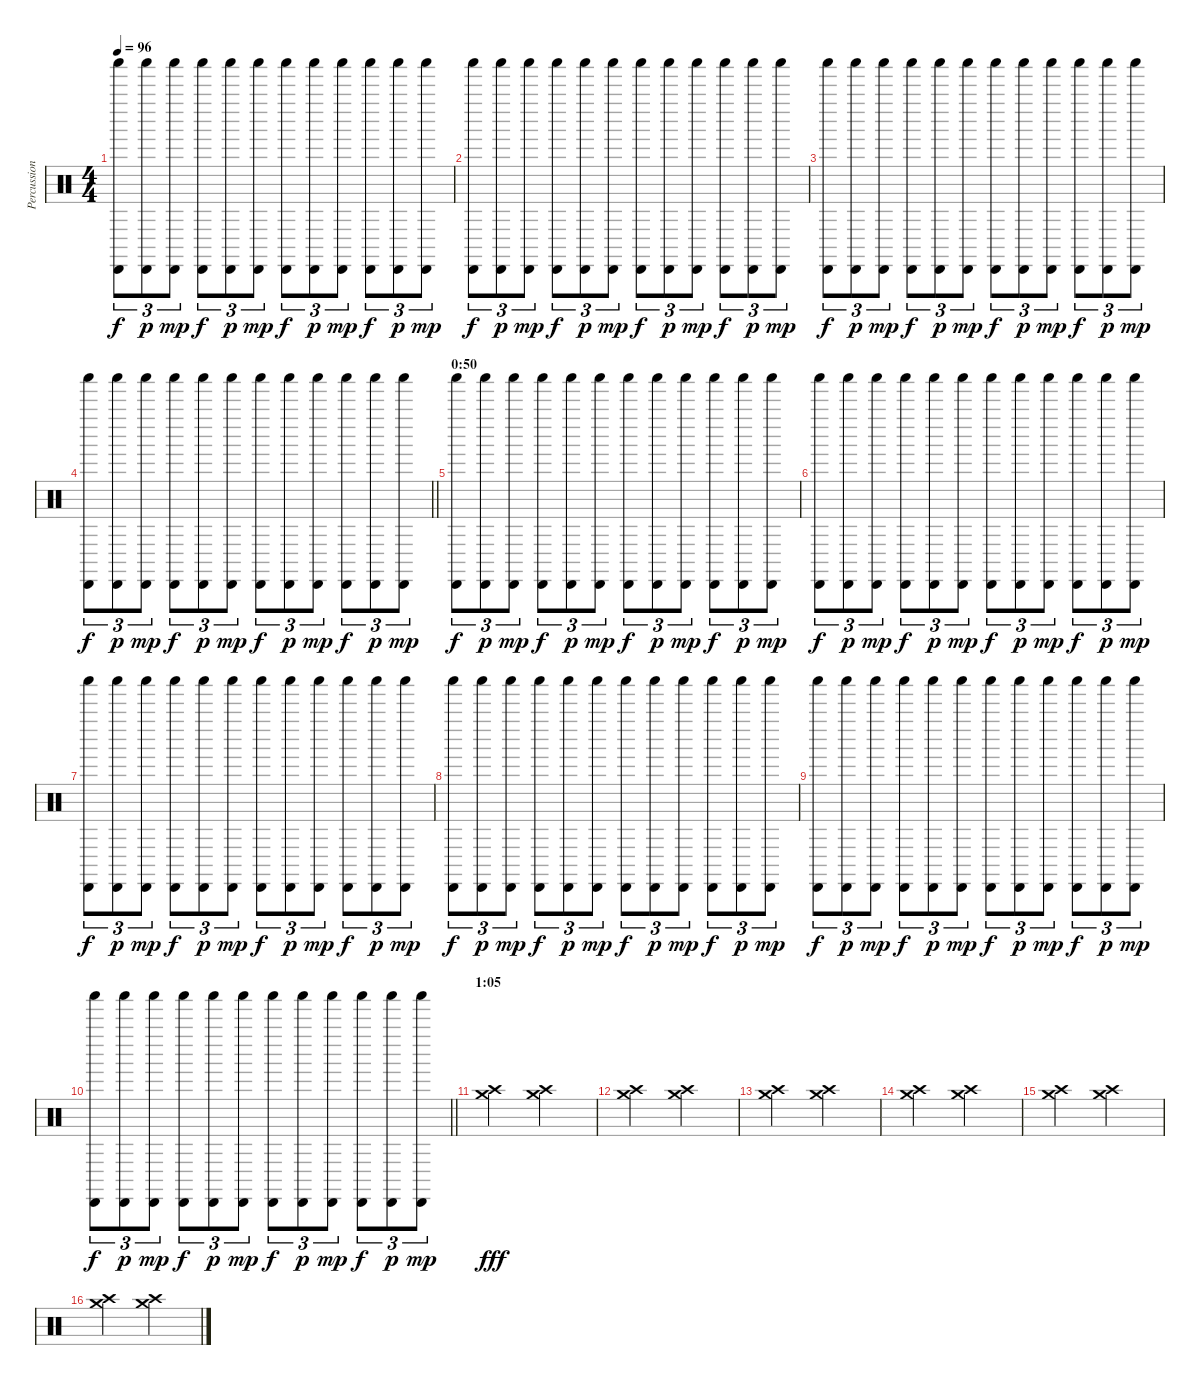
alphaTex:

\track ("Percussion" "Percussion") {instrument percussion}
\staff {score}
\articulation defaults
\ts (4 4)
\tempo 96
\clef neutral
\ks c
("Shaker (hit)" "Cabasa (hit)").8{tu (3 2) dy f} ("Shaker (hit)" "Cabasa (hit)").8{tu (3 2) dy p} ("Shaker (hit)" "Cabasa (hit)").8{tu (3 2) dy mp} ("Shaker (hit)" "Cabasa (hit)").8{tu (3 2) dy f} ("Shaker (hit)" "Cabasa (hit)").8{tu (3 2) dy p} ("Shaker (hit)" "Cabasa (hit)").8{tu (3 2) dy mp} ("Shaker (hit)" "Cabasa (hit)").8{tu (3 2) dy f} ("Shaker (hit)" "Cabasa (hit)").8{tu (3 2) dy p} ("Shaker (hit)" "Cabasa (hit)").8{tu (3 2) dy mp} ("Shaker (hit)" "Cabasa (hit)").8{tu (3 2) dy f} ("Shaker (hit)" "Cabasa (hit)").8{tu (3 2) dy p} ("Shaker (hit)" "Cabasa (hit)").8{tu (3 2) dy mp} |
("Shaker (hit)" "Cabasa (hit)").8{tu (3 2) dy f} ("Shaker (hit)" "Cabasa (hit)").8{tu (3 2) dy p} ("Shaker (hit)" "Cabasa (hit)").8{tu (3 2) dy mp} ("Shaker (hit)" "Cabasa (hit)").8{tu (3 2) dy f} ("Shaker (hit)" "Cabasa (hit)").8{tu (3 2) dy p} ("Shaker (hit)" "Cabasa (hit)").8{tu (3 2) dy mp} ("Shaker (hit)" "Cabasa (hit)").8{tu (3 2) dy f} ("Shaker (hit)" "Cabasa (hit)").8{tu (3 2) dy p} ("Shaker (hit)" "Cabasa (hit)").8{tu (3 2) dy mp} ("Shaker (hit)" "Cabasa (hit)").8{tu (3 2) dy f} ("Shaker (hit)" "Cabasa (hit)").8{tu (3 2) dy p} ("Shaker (hit)" "Cabasa (hit)").8{tu (3 2) dy mp} |
("Shaker (hit)" "Cabasa (hit)").8{tu (3 2) dy f} ("Shaker (hit)" "Cabasa (hit)").8{tu (3 2) dy p} ("Shaker (hit)" "Cabasa (hit)").8{tu (3 2) dy mp} ("Shaker (hit)" "Cabasa (hit)").8{tu (3 2) dy f} ("Shaker (hit)" "Cabasa (hit)").8{tu (3 2) dy p} ("Shaker (hit)" "Cabasa (hit)").8{tu (3 2) dy mp} ("Shaker (hit)" "Cabasa (hit)").8{tu (3 2) dy f} ("Shaker (hit)" "Cabasa (hit)").8{tu (3 2) dy p} ("Shaker (hit)" "Cabasa (hit)").8{tu (3 2) dy mp} ("Shaker (hit)" "Cabasa (hit)").8{tu (3 2) dy f} ("Shaker (hit)" "Cabasa (hit)").8{tu (3 2) dy p} ("Shaker (hit)" "Cabasa (hit)").8{tu (3 2) dy mp} |
\barLineRight lightlight
("Shaker (hit)" "Cabasa (hit)").8{tu (3 2) dy f} ("Shaker (hit)" "Cabasa (hit)").8{tu (3 2) dy p} ("Shaker (hit)" "Cabasa (hit)").8{tu (3 2) dy mp} ("Shaker (hit)" "Cabasa (hit)").8{tu (3 2) dy f} ("Shaker (hit)" "Cabasa (hit)").8{tu (3 2) dy p} ("Shaker (hit)" "Cabasa (hit)").8{tu (3 2) dy mp} ("Shaker (hit)" "Cabasa (hit)").8{tu (3 2) dy f} ("Shaker (hit)" "Cabasa (hit)").8{tu (3 2) dy p} ("Shaker (hit)" "Cabasa (hit)").8{tu (3 2) dy mp} ("Shaker (hit)" "Cabasa (hit)").8{tu (3 2) dy f} ("Shaker (hit)" "Cabasa (hit)").8{tu (3 2) dy p} ("Shaker (hit)" "Cabasa (hit)").8{tu (3 2) dy mp} |
\section ("" "0:50")
("Shaker (hit)" "Cabasa (hit)").8{tu (3 2) dy f} ("Shaker (hit)" "Cabasa (hit)").8{tu (3 2) dy p} ("Shaker (hit)" "Cabasa (hit)").8{tu (3 2) dy mp} ("Shaker (hit)" "Cabasa (hit)").8{tu (3 2) dy f} ("Shaker (hit)" "Cabasa (hit)").8{tu (3 2) dy p} ("Shaker (hit)" "Cabasa (hit)").8{tu (3 2) dy mp} ("Shaker (hit)" "Cabasa (hit)").8{tu (3 2) dy f} ("Shaker (hit)" "Cabasa (hit)").8{tu (3 2) dy p} ("Shaker (hit)" "Cabasa (hit)").8{tu (3 2) dy mp} ("Shaker (hit)" "Cabasa (hit)").8{tu (3 2) dy f} ("Shaker (hit)" "Cabasa (hit)").8{tu (3 2) dy p} ("Shaker (hit)" "Cabasa (hit)").8{tu (3 2) dy mp} |
("Shaker (hit)" "Cabasa (hit)").8{tu (3 2) dy f} ("Shaker (hit)" "Cabasa (hit)").8{tu (3 2) dy p} ("Shaker (hit)" "Cabasa (hit)").8{tu (3 2) dy mp} ("Shaker (hit)" "Cabasa (hit)").8{tu (3 2) dy f} ("Shaker (hit)" "Cabasa (hit)").8{tu (3 2) dy p} ("Shaker (hit)" "Cabasa (hit)").8{tu (3 2) dy mp} ("Shaker (hit)" "Cabasa (hit)").8{tu (3 2) dy f} ("Shaker (hit)" "Cabasa (hit)").8{tu (3 2) dy p} ("Shaker (hit)" "Cabasa (hit)").8{tu (3 2) dy mp} ("Shaker (hit)" "Cabasa (hit)").8{tu (3 2) dy f} ("Shaker (hit)" "Cabasa (hit)").8{tu (3 2) dy p} ("Shaker (hit)" "Cabasa (hit)").8{tu (3 2) dy mp} |
("Shaker (hit)" "Cabasa (hit)").8{tu (3 2) dy f} ("Shaker (hit)" "Cabasa (hit)").8{tu (3 2) dy p} ("Shaker (hit)" "Cabasa (hit)").8{tu (3 2) dy mp} ("Shaker (hit)" "Cabasa (hit)").8{tu (3 2) dy f} ("Shaker (hit)" "Cabasa (hit)").8{tu (3 2) dy p} ("Shaker (hit)" "Cabasa (hit)").8{tu (3 2) dy mp} ("Shaker (hit)" "Cabasa (hit)").8{tu (3 2) dy f} ("Shaker (hit)" "Cabasa (hit)").8{tu (3 2) dy p} ("Shaker (hit)" "Cabasa (hit)").8{tu (3 2) dy mp} ("Shaker (hit)" "Cabasa (hit)").8{tu (3 2) dy f} ("Shaker (hit)" "Cabasa (hit)").8{tu (3 2) dy p} ("Shaker (hit)" "Cabasa (hit)").8{tu (3 2) dy mp} |
("Shaker (hit)" "Cabasa (hit)").8{tu (3 2) dy f} ("Shaker (hit)" "Cabasa (hit)").8{tu (3 2) dy p} ("Shaker (hit)" "Cabasa (hit)").8{tu (3 2) dy mp} ("Shaker (hit)" "Cabasa (hit)").8{tu (3 2) dy f} ("Shaker (hit)" "Cabasa (hit)").8{tu (3 2) dy p} ("Shaker (hit)" "Cabasa (hit)").8{tu (3 2) dy mp} ("Shaker (hit)" "Cabasa (hit)").8{tu (3 2) dy f} ("Shaker (hit)" "Cabasa (hit)").8{tu (3 2) dy p} ("Shaker (hit)" "Cabasa (hit)").8{tu (3 2) dy mp} ("Shaker (hit)" "Cabasa (hit)").8{tu (3 2) dy f} ("Shaker (hit)" "Cabasa (hit)").8{tu (3 2) dy p} ("Shaker (hit)" "Cabasa (hit)").8{tu (3 2) dy mp} |
("Shaker (hit)" "Cabasa (hit)").8{tu (3 2) dy f} ("Shaker (hit)" "Cabasa (hit)").8{tu (3 2) dy p} ("Shaker (hit)" "Cabasa (hit)").8{tu (3 2) dy mp} ("Shaker (hit)" "Cabasa (hit)").8{tu (3 2) dy f} ("Shaker (hit)" "Cabasa (hit)").8{tu (3 2) dy p} ("Shaker (hit)" "Cabasa (hit)").8{tu (3 2) dy mp} ("Shaker (hit)" "Cabasa (hit)").8{tu (3 2) dy f} ("Shaker (hit)" "Cabasa (hit)").8{tu (3 2) dy p} ("Shaker (hit)" "Cabasa (hit)").8{tu (3 2) dy mp} ("Shaker (hit)" "Cabasa (hit)").8{tu (3 2) dy f} ("Shaker (hit)" "Cabasa (hit)").8{tu (3 2) dy p} ("Shaker (hit)" "Cabasa (hit)").8{tu (3 2) dy mp} |
\barLineRight lightlight
("Shaker (hit)" "Cabasa (hit)").8{tu (3 2) dy f} ("Shaker (hit)" "Cabasa (hit)").8{tu (3 2) dy p} ("Shaker (hit)" "Cabasa (hit)").8{tu (3 2) dy mp} ("Shaker (hit)" "Cabasa (hit)").8{tu (3 2) dy f} ("Shaker (hit)" "Cabasa (hit)").8{tu (3 2) dy p} ("Shaker (hit)" "Cabasa (hit)").8{tu (3 2) dy mp} ("Shaker (hit)" "Cabasa (hit)").8{tu (3 2) dy f} ("Shaker (hit)" "Cabasa (hit)").8{tu (3 2) dy p} ("Shaker (hit)" "Cabasa (hit)").8{tu (3 2) dy mp} ("Shaker (hit)" "Cabasa (hit)").8{tu (3 2) dy f} ("Shaker (hit)" "Cabasa (hit)").8{tu (3 2) dy p} ("Shaker (hit)" "Cabasa (hit)").8{tu (3 2) dy mp} |
\section ("" "1:05")
("Crash medium (hit)" "Crash high (hit)").2{dy fff} ("Crash medium (hit)" "Crash high (hit)").2 |
("Crash medium (hit)" "Crash high (hit)").2 ("Crash medium (hit)" "Crash high (hit)").2 |
("Crash medium (hit)" "Crash high (hit)").2 ("Crash medium (hit)" "Crash high (hit)").2 |
("Crash medium (hit)" "Crash high (hit)").2 ("Crash medium (hit)" "Crash high (hit)").2 |
("Crash medium (hit)" "Crash high (hit)").2 ("Crash medium (hit)" "Crash high (hit)").2 |
("Crash medium (hit)" "Crash high (hit)").2 ("Crash medium (hit)" "Crash high (hit)").2
